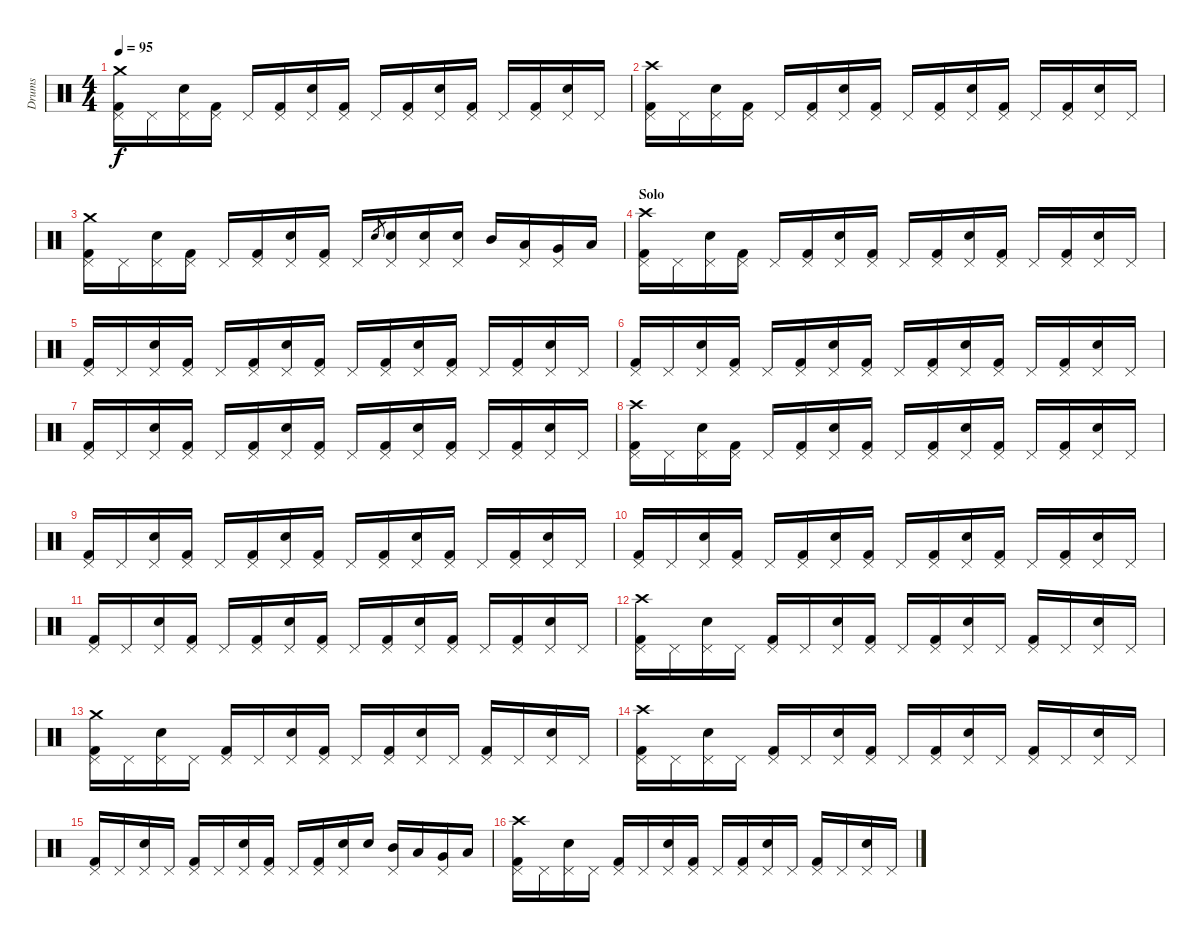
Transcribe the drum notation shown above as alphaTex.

\track ("Drums" "Drums") {instrument percussion}
\staff {score}
\articulation defaults
\ts (4 4)
\tempo 95
\clef neutral
\ks c
("Kick (hit) 2" "Pedal Hi-Hat (hit)" "Crash medium (hit)").16{dy f} "Pedal Hi-Hat (hit)".16 ("Snare (hit) 2" "Pedal Hi-Hat (hit)").16 ("Kick (hit) 2" "Pedal Hi-Hat (hit)").16 "Pedal Hi-Hat (hit)".16 ("Kick (hit) 2" "Pedal Hi-Hat (hit)").16 ("Snare (hit) 2" "Pedal Hi-Hat (hit)").16 ("Kick (hit) 2" "Pedal Hi-Hat (hit)").16 "Pedal Hi-Hat (hit)".16 ("Kick (hit) 2" "Pedal Hi-Hat (hit)").16 ("Snare (hit) 2" "Pedal Hi-Hat (hit)").16 ("Kick (hit) 2" "Pedal Hi-Hat (hit)").16 "Pedal Hi-Hat (hit)".16 ("Kick (hit) 2" "Pedal Hi-Hat (hit)").16 ("Snare (hit) 2" "Pedal Hi-Hat (hit)").16 "Pedal Hi-Hat (hit)".16 |
("Kick (hit) 2" "Pedal Hi-Hat (hit)" "Crash high (hit)").16 "Pedal Hi-Hat (hit)".16 ("Snare (hit) 2" "Pedal Hi-Hat (hit)").16 ("Kick (hit) 2" "Pedal Hi-Hat (hit)").16 "Pedal Hi-Hat (hit)".16 ("Kick (hit) 2" "Pedal Hi-Hat (hit)").16 ("Snare (hit) 2" "Pedal Hi-Hat (hit)").16 ("Kick (hit) 2" "Pedal Hi-Hat (hit)").16 "Pedal Hi-Hat (hit)".16 ("Kick (hit) 2" "Pedal Hi-Hat (hit)").16 ("Snare (hit) 2" "Pedal Hi-Hat (hit)").16 ("Kick (hit) 2" "Pedal Hi-Hat (hit)").16 "Pedal Hi-Hat (hit)".16 ("Kick (hit) 2" "Pedal Hi-Hat (hit)").16 ("Snare (hit) 2" "Pedal Hi-Hat (hit)").16 "Pedal Hi-Hat (hit)".16 |
("Kick (hit) 2" "Pedal Hi-Hat (hit)" "Crash medium (hit)").16 "Pedal Hi-Hat (hit)".16 ("Snare (hit) 2" "Pedal Hi-Hat (hit)").16 ("Kick (hit) 2" "Pedal Hi-Hat (hit)").16 "Pedal Hi-Hat (hit)".16 ("Kick (hit) 2" "Pedal Hi-Hat (hit)").16 ("Snare (hit) 2" "Pedal Hi-Hat (hit)").16 ("Kick (hit) 2" "Pedal Hi-Hat (hit)").16 "Pedal Hi-Hat (hit)".16 "Snare (hit) 2".8{gr} ("Snare (hit) 2" "Pedal Hi-Hat (hit)").16 ("Snare (hit) 2" "Pedal Hi-Hat (hit)").16 ("Snare (hit) 2" "Pedal Hi-Hat (hit)").16 "Mid Tom (hit)".16 ("Low Tom (hit)" "Pedal Hi-Hat (hit)").16 ("Very Low Tom (hit)" "Pedal Hi-Hat (hit)").16 "Low Floor Tom (hit)".16 |
\section ("" "Solo")
("Kick (hit) 2" "Pedal Hi-Hat (hit)" "Crash high (hit)").16 "Pedal Hi-Hat (hit)".16 ("Snare (hit) 2" "Pedal Hi-Hat (hit)").16 ("Kick (hit) 2" "Pedal Hi-Hat (hit)").16 "Pedal Hi-Hat (hit)".16 ("Kick (hit) 2" "Pedal Hi-Hat (hit)").16 ("Snare (hit) 2" "Pedal Hi-Hat (hit)").16 ("Kick (hit) 2" "Pedal Hi-Hat (hit)").16 "Pedal Hi-Hat (hit)".16 ("Kick (hit) 2" "Pedal Hi-Hat (hit)").16 ("Snare (hit) 2" "Pedal Hi-Hat (hit)").16 ("Kick (hit) 2" "Pedal Hi-Hat (hit)").16 "Pedal Hi-Hat (hit)".16 ("Kick (hit) 2" "Pedal Hi-Hat (hit)").16 ("Snare (hit) 2" "Pedal Hi-Hat (hit)").16 "Pedal Hi-Hat (hit)".16 |
("Kick (hit) 2" "Pedal Hi-Hat (hit)").16 "Pedal Hi-Hat (hit)".16 ("Snare (hit) 2" "Pedal Hi-Hat (hit)").16 ("Kick (hit) 2" "Pedal Hi-Hat (hit)").16 "Pedal Hi-Hat (hit)".16 ("Kick (hit) 2" "Pedal Hi-Hat (hit)").16 ("Snare (hit) 2" "Pedal Hi-Hat (hit)").16 ("Kick (hit) 2" "Pedal Hi-Hat (hit)").16 "Pedal Hi-Hat (hit)".16 ("Kick (hit) 2" "Pedal Hi-Hat (hit)").16 ("Snare (hit) 2" "Pedal Hi-Hat (hit)").16 ("Kick (hit) 2" "Pedal Hi-Hat (hit)").16 "Pedal Hi-Hat (hit)".16 ("Kick (hit) 2" "Pedal Hi-Hat (hit)").16 ("Snare (hit) 2" "Pedal Hi-Hat (hit)").16 "Pedal Hi-Hat (hit)".16 |
("Kick (hit) 2" "Pedal Hi-Hat (hit)").16 "Pedal Hi-Hat (hit)".16 ("Snare (hit) 2" "Pedal Hi-Hat (hit)").16 ("Kick (hit) 2" "Pedal Hi-Hat (hit)").16 "Pedal Hi-Hat (hit)".16 ("Kick (hit) 2" "Pedal Hi-Hat (hit)").16 ("Snare (hit) 2" "Pedal Hi-Hat (hit)").16 ("Kick (hit) 2" "Pedal Hi-Hat (hit)").16 "Pedal Hi-Hat (hit)".16 ("Kick (hit) 2" "Pedal Hi-Hat (hit)").16 ("Snare (hit) 2" "Pedal Hi-Hat (hit)").16 ("Kick (hit) 2" "Pedal Hi-Hat (hit)").16 "Pedal Hi-Hat (hit)".16 ("Kick (hit) 2" "Pedal Hi-Hat (hit)").16 ("Snare (hit) 2" "Pedal Hi-Hat (hit)").16 "Pedal Hi-Hat (hit)".16 |
("Kick (hit) 2" "Pedal Hi-Hat (hit)").16 "Pedal Hi-Hat (hit)".16 ("Snare (hit) 2" "Pedal Hi-Hat (hit)").16 ("Kick (hit) 2" "Pedal Hi-Hat (hit)").16 "Pedal Hi-Hat (hit)".16 ("Kick (hit) 2" "Pedal Hi-Hat (hit)").16 ("Snare (hit) 2" "Pedal Hi-Hat (hit)").16 ("Kick (hit) 2" "Pedal Hi-Hat (hit)").16 "Pedal Hi-Hat (hit)".16 ("Kick (hit) 2" "Pedal Hi-Hat (hit)").16 ("Snare (hit) 2" "Pedal Hi-Hat (hit)").16 ("Kick (hit) 2" "Pedal Hi-Hat (hit)").16 "Pedal Hi-Hat (hit)".16 ("Kick (hit) 2" "Pedal Hi-Hat (hit)").16 ("Snare (hit) 2" "Pedal Hi-Hat (hit)").16 "Pedal Hi-Hat (hit)".16 |
("Kick (hit) 2" "Pedal Hi-Hat (hit)" "Crash high (hit)").16 "Pedal Hi-Hat (hit)".16 ("Snare (hit) 2" "Pedal Hi-Hat (hit)").16 ("Kick (hit) 2" "Pedal Hi-Hat (hit)").16 "Pedal Hi-Hat (hit)".16 ("Kick (hit) 2" "Pedal Hi-Hat (hit)").16 ("Snare (hit) 2" "Pedal Hi-Hat (hit)").16 ("Kick (hit) 2" "Pedal Hi-Hat (hit)").16 "Pedal Hi-Hat (hit)".16 ("Kick (hit) 2" "Pedal Hi-Hat (hit)").16 ("Snare (hit) 2" "Pedal Hi-Hat (hit)").16 ("Kick (hit) 2" "Pedal Hi-Hat (hit)").16 "Pedal Hi-Hat (hit)".16 ("Kick (hit) 2" "Pedal Hi-Hat (hit)").16 ("Snare (hit) 2" "Pedal Hi-Hat (hit)").16 "Pedal Hi-Hat (hit)".16 |
("Kick (hit) 2" "Pedal Hi-Hat (hit)").16 "Pedal Hi-Hat (hit)".16 ("Snare (hit) 2" "Pedal Hi-Hat (hit)").16 ("Kick (hit) 2" "Pedal Hi-Hat (hit)").16 "Pedal Hi-Hat (hit)".16 ("Kick (hit) 2" "Pedal Hi-Hat (hit)").16 ("Snare (hit) 2" "Pedal Hi-Hat (hit)").16 ("Kick (hit) 2" "Pedal Hi-Hat (hit)").16 "Pedal Hi-Hat (hit)".16 ("Kick (hit) 2" "Pedal Hi-Hat (hit)").16 ("Snare (hit) 2" "Pedal Hi-Hat (hit)").16 ("Kick (hit) 2" "Pedal Hi-Hat (hit)").16 "Pedal Hi-Hat (hit)".16 ("Kick (hit) 2" "Pedal Hi-Hat (hit)").16 ("Snare (hit) 2" "Pedal Hi-Hat (hit)").16 "Pedal Hi-Hat (hit)".16 |
("Kick (hit) 2" "Pedal Hi-Hat (hit)").16 "Pedal Hi-Hat (hit)".16 ("Snare (hit) 2" "Pedal Hi-Hat (hit)").16 ("Kick (hit) 2" "Pedal Hi-Hat (hit)").16 "Pedal Hi-Hat (hit)".16 ("Kick (hit) 2" "Pedal Hi-Hat (hit)").16 ("Snare (hit) 2" "Pedal Hi-Hat (hit)").16 ("Kick (hit) 2" "Pedal Hi-Hat (hit)").16 "Pedal Hi-Hat (hit)".16 ("Kick (hit) 2" "Pedal Hi-Hat (hit)").16 ("Snare (hit) 2" "Pedal Hi-Hat (hit)").16 ("Kick (hit) 2" "Pedal Hi-Hat (hit)").16 "Pedal Hi-Hat (hit)".16 ("Kick (hit) 2" "Pedal Hi-Hat (hit)").16 ("Snare (hit) 2" "Pedal Hi-Hat (hit)").16 "Pedal Hi-Hat (hit)".16 |
("Kick (hit) 2" "Pedal Hi-Hat (hit)").16 "Pedal Hi-Hat (hit)".16 ("Snare (hit) 2" "Pedal Hi-Hat (hit)").16 ("Kick (hit) 2" "Pedal Hi-Hat (hit)").16 "Pedal Hi-Hat (hit)".16 ("Kick (hit) 2" "Pedal Hi-Hat (hit)").16 ("Snare (hit) 2" "Pedal Hi-Hat (hit)").16 ("Kick (hit) 2" "Pedal Hi-Hat (hit)").16 "Pedal Hi-Hat (hit)".16 ("Kick (hit) 2" "Pedal Hi-Hat (hit)").16 ("Snare (hit) 2" "Pedal Hi-Hat (hit)").16 ("Kick (hit) 2" "Pedal Hi-Hat (hit)").16 "Pedal Hi-Hat (hit)".16 ("Kick (hit) 2" "Pedal Hi-Hat (hit)").16 ("Snare (hit) 2" "Pedal Hi-Hat (hit)").16 "Pedal Hi-Hat (hit)".16 |
("Kick (hit) 2" "Pedal Hi-Hat (hit)" "Crash high (hit)").16 "Pedal Hi-Hat (hit)".16 ("Snare (hit) 2" "Pedal Hi-Hat (hit)").16 "Pedal Hi-Hat (hit)".16 ("Kick (hit) 2" "Pedal Hi-Hat (hit)").16 "Pedal Hi-Hat (hit)".16 ("Snare (hit) 2" "Pedal Hi-Hat (hit)").16 ("Kick (hit) 2" "Pedal Hi-Hat (hit)").16 "Pedal Hi-Hat (hit)".16 ("Kick (hit) 2" "Pedal Hi-Hat (hit)").16 ("Snare (hit) 2" "Pedal Hi-Hat (hit)").16 "Pedal Hi-Hat (hit)".16 ("Kick (hit) 2" "Pedal Hi-Hat (hit)").16 "Pedal Hi-Hat (hit)".16 ("Snare (hit) 2" "Pedal Hi-Hat (hit)").16 "Pedal Hi-Hat (hit)".16 |
("Kick (hit) 2" "Pedal Hi-Hat (hit)" "Crash medium (hit)").16 "Pedal Hi-Hat (hit)".16 ("Snare (hit) 2" "Pedal Hi-Hat (hit)").16 "Pedal Hi-Hat (hit)".16 ("Kick (hit) 2" "Pedal Hi-Hat (hit)").16 "Pedal Hi-Hat (hit)".16 ("Snare (hit) 2" "Pedal Hi-Hat (hit)").16 ("Kick (hit) 2" "Pedal Hi-Hat (hit)").16 "Pedal Hi-Hat (hit)".16 ("Kick (hit) 2" "Pedal Hi-Hat (hit)").16 ("Snare (hit) 2" "Pedal Hi-Hat (hit)").16 "Pedal Hi-Hat (hit)".16 ("Kick (hit) 2" "Pedal Hi-Hat (hit)").16 "Pedal Hi-Hat (hit)".16 ("Snare (hit) 2" "Pedal Hi-Hat (hit)").16 "Pedal Hi-Hat (hit)".16 |
("Kick (hit) 2" "Pedal Hi-Hat (hit)" "Crash high (hit)").16 "Pedal Hi-Hat (hit)".16 ("Snare (hit) 2" "Pedal Hi-Hat (hit)").16 "Pedal Hi-Hat (hit)".16 ("Kick (hit) 2" "Pedal Hi-Hat (hit)").16 "Pedal Hi-Hat (hit)".16 ("Snare (hit) 2" "Pedal Hi-Hat (hit)").16 ("Kick (hit) 2" "Pedal Hi-Hat (hit)").16 "Pedal Hi-Hat (hit)".16 ("Kick (hit) 2" "Pedal Hi-Hat (hit)").16 ("Snare (hit) 2" "Pedal Hi-Hat (hit)").16 "Pedal Hi-Hat (hit)".16 ("Kick (hit) 2" "Pedal Hi-Hat (hit)").16 "Pedal Hi-Hat (hit)".16 ("Snare (hit) 2" "Pedal Hi-Hat (hit)").16 "Pedal Hi-Hat (hit)".16 |
("Kick (hit) 2" "Pedal Hi-Hat (hit)").16 "Pedal Hi-Hat (hit)".16 ("Snare (hit) 2" "Pedal Hi-Hat (hit)").16 "Pedal Hi-Hat (hit)".16 ("Kick (hit) 2" "Pedal Hi-Hat (hit)").16 "Pedal Hi-Hat (hit)".16 ("Snare (hit) 2" "Pedal Hi-Hat (hit)").16 ("Kick (hit) 2" "Pedal Hi-Hat (hit)").16 "Pedal Hi-Hat (hit)".16 ("Kick (hit) 2" "Pedal Hi-Hat (hit)").16 ("Snare (hit) 2" "Pedal Hi-Hat (hit)").16 "Snare (hit) 2".16 ("Mid Tom (hit)" "Pedal Hi-Hat (hit)").16 "Low Tom (hit)".16 ("Very Low Tom (hit)" "Pedal Hi-Hat (hit)").16 "Low Floor Tom (hit)".16 |
("Kick (hit) 2" "Pedal Hi-Hat (hit)" "Crash high (hit)").16 "Pedal Hi-Hat (hit)".16 ("Snare (hit) 2" "Pedal Hi-Hat (hit)").16 "Pedal Hi-Hat (hit)".16 ("Kick (hit) 2" "Pedal Hi-Hat (hit)").16 "Pedal Hi-Hat (hit)".16 ("Snare (hit) 2" "Pedal Hi-Hat (hit)").16 ("Kick (hit) 2" "Pedal Hi-Hat (hit)").16 "Pedal Hi-Hat (hit)".16 ("Kick (hit) 2" "Pedal Hi-Hat (hit)").16 ("Snare (hit) 2" "Pedal Hi-Hat (hit)").16 "Pedal Hi-Hat (hit)".16 ("Kick (hit) 2" "Pedal Hi-Hat (hit)").16 "Pedal Hi-Hat (hit)".16 ("Snare (hit) 2" "Pedal Hi-Hat (hit)").16 "Pedal Hi-Hat (hit)".16
